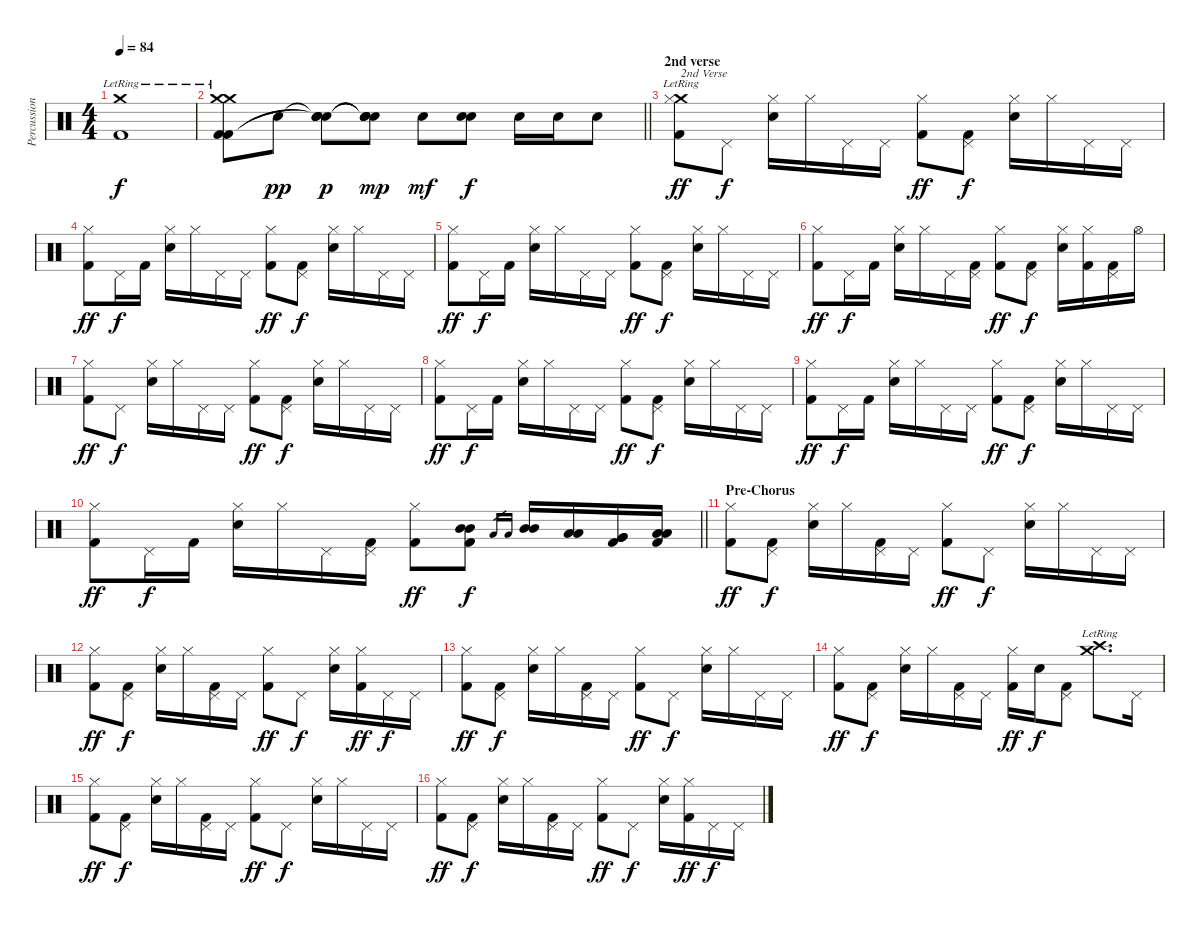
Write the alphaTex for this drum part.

\track ("Percussion" "Percussion") {instrument percussion}
\staff {score}
\articulation defaults
\ts (4 4)
\tempo 84
\clef neutral
\ks c
("Crash medium (hit)"{lr} "Kick (hit) 2").1{dy f} |
\barLineRight lightlight
("Crash medium (hit)"{lr} "Crash medium (hit)"{lr} "Kick (hit) 2" "Kick (hit) 2").8 "Electric Snare (hit)".8{dy pp} ("Snare (hit)"{t} "Electric Snare (hit)" "Snare (hit)"{t} "Snare (hit)"{t}).8{dy p} ("Snare (hit)"{t} "Electric Snare (hit)" "Snare (hit)"{t} "Snare (hit)"{t}).8{dy mp} "Electric Snare (hit)".8{dy mf} ("Electric Snare (hit)" "Electric Snare (hit)").8{bd 120 dy f} "Electric Snare (hit)".16 "Electric Snare (hit)".16 "Electric Snare (hit)".8 |
\section ("" "2nd verse")
("Crash medium (hit)"{lr} "Hi-Hat (closed)" "Kick (hit) 2").8{txt "2nd Verse" dy ff} "Pedal Hi-Hat (hit)".8{dy f} ("Hi-Hat (closed)" "Electric Snare (hit)").16 "Hi-Hat (closed)".16 "Pedal Hi-Hat (hit)".16 "Pedal Hi-Hat (hit)".16 ("Hi-Hat (closed)" "Kick (hit) 2").8{dy ff} ("Pedal Hi-Hat (hit)" "Kick (hit) 2").8{dy f} ("Hi-Hat (closed)" "Electric Snare (hit)").16 "Hi-Hat (closed)".16 "Pedal Hi-Hat (hit)".16 "Pedal Hi-Hat (hit)".16 |
("Hi-Hat (closed)" "Kick (hit) 2").8{dy ff} "Pedal Hi-Hat (hit)".16{dy f} "Kick (hit) 2".16 ("Hi-Hat (closed)" "Electric Snare (hit)").16 "Hi-Hat (closed)".16 "Pedal Hi-Hat (hit)".16 "Pedal Hi-Hat (hit)".16 ("Hi-Hat (closed)" "Kick (hit) 2").8{dy ff} ("Pedal Hi-Hat (hit)" "Kick (hit) 2").8{dy f} ("Hi-Hat (closed)" "Electric Snare (hit)").16 "Hi-Hat (closed)".16 "Pedal Hi-Hat (hit)".16 "Pedal Hi-Hat (hit)".16 |
("Hi-Hat (closed)" "Kick (hit) 2").8{dy ff} "Pedal Hi-Hat (hit)".16{dy f} "Kick (hit) 2".16 ("Hi-Hat (closed)" "Electric Snare (hit)").16 "Hi-Hat (closed)".16 "Pedal Hi-Hat (hit)".16 "Pedal Hi-Hat (hit)".16 ("Hi-Hat (closed)" "Kick (hit) 2").8{dy ff} ("Pedal Hi-Hat (hit)" "Kick (hit) 2").8{dy f} ("Hi-Hat (closed)" "Electric Snare (hit)").16 "Hi-Hat (closed)".16 "Pedal Hi-Hat (hit)".16 "Pedal Hi-Hat (hit)".16 |
("Hi-Hat (closed)" "Kick (hit) 2").8{dy ff} "Pedal Hi-Hat (hit)".16{dy f} "Kick (hit) 2".16 ("Hi-Hat (closed)" "Electric Snare (hit)").16 "Hi-Hat (closed)".16 "Pedal Hi-Hat (hit)".16 ("Pedal Hi-Hat (hit)" "Kick (hit) 2").16 ("Hi-Hat (closed)" "Kick (hit) 2").8{dy ff} ("Pedal Hi-Hat (hit)" "Kick (hit) 2").8{dy f} ("Hi-Hat (closed)" "Electric Snare (hit)").16 ("Hi-Hat (closed)" "Kick (hit) 2").16 ("Pedal Hi-Hat (hit)" "Kick (hit) 2").16 "Hi-Hat (open)".16 |
("Hi-Hat (closed)" "Kick (hit) 2").8{dy ff} "Pedal Hi-Hat (hit)".8{dy f} ("Hi-Hat (closed)" "Electric Snare (hit)").16 "Hi-Hat (closed)".16 "Pedal Hi-Hat (hit)".16 "Pedal Hi-Hat (hit)".16 ("Hi-Hat (closed)" "Kick (hit) 2").8{dy ff} ("Pedal Hi-Hat (hit)" "Kick (hit) 2").8{dy f} ("Hi-Hat (closed)" "Electric Snare (hit)").16 "Hi-Hat (closed)".16 "Pedal Hi-Hat (hit)".16 "Pedal Hi-Hat (hit)".16 |
("Hi-Hat (closed)" "Kick (hit) 2").8{dy ff} "Pedal Hi-Hat (hit)".16{dy f} "Kick (hit) 2".16 ("Hi-Hat (closed)" "Electric Snare (hit)").16 "Hi-Hat (closed)".16 "Pedal Hi-Hat (hit)".16 "Pedal Hi-Hat (hit)".16 ("Hi-Hat (closed)" "Kick (hit) 2").8{dy ff} ("Pedal Hi-Hat (hit)" "Kick (hit) 2").8{dy f} ("Hi-Hat (closed)" "Electric Snare (hit)").16 "Hi-Hat (closed)".16 "Pedal Hi-Hat (hit)".16 "Pedal Hi-Hat (hit)".16 |
("Hi-Hat (closed)" "Kick (hit) 2").8{dy ff} "Pedal Hi-Hat (hit)".16{dy f} "Kick (hit) 2".16 ("Hi-Hat (closed)" "Electric Snare (hit)").16 "Hi-Hat (closed)".16 "Pedal Hi-Hat (hit)".16 "Pedal Hi-Hat (hit)".16 ("Hi-Hat (closed)" "Kick (hit) 2").8{dy ff} ("Pedal Hi-Hat (hit)" "Kick (hit) 2").8{dy f} ("Hi-Hat (closed)" "Electric Snare (hit)").16 "Hi-Hat (closed)".16 "Pedal Hi-Hat (hit)".16 "Pedal Hi-Hat (hit)".16 |
\barLineRight lightlight
("Hi-Hat (closed)" "Kick (hit) 2").8{dy ff} "Pedal Hi-Hat (hit)".16{dy f} "Kick (hit) 2".16 ("Hi-Hat (closed)" "Electric Snare (hit)").16 "Hi-Hat (closed)".16 "Pedal Hi-Hat (hit)".16 ("Pedal Hi-Hat (hit)" "Kick (hit) 2").16 ("Hi-Hat (closed)" "Kick (hit) 2").8{dy ff} ("Mid Tom (hit)" "Mid Tom (hit)" "Kick (hit) 2").8{dy f} "Low Tom (hit)".16{gr} "Low Tom (hit)".16{gr} ("Mid Tom (hit)" "Mid Tom (hit)").16 ("Low Tom (hit)" "Low Tom (hit)").16 ("Very Low Tom (hit)" "Very Low Tom (hit)" "Kick (hit) 2").16 ("Low Floor Tom (hit)" "Low Floor Tom (hit)" "Kick (hit) 2").16 |
\section ("" "Pre-Chorus")
("Hi-Hat (closed)" "Kick (hit) 2").8{dy ff} ("Pedal Hi-Hat (hit)" "Kick (hit) 2").8{dy f} ("Hi-Hat (closed)" "Electric Snare (hit)").16 "Hi-Hat (closed)".16 ("Pedal Hi-Hat (hit)" "Kick (hit) 2").16 "Pedal Hi-Hat (hit)".16 ("Hi-Hat (closed)" "Kick (hit) 2").8{dy ff} "Pedal Hi-Hat (hit)".8{dy f} ("Hi-Hat (closed)" "Electric Snare (hit)").16 "Hi-Hat (closed)".16 "Pedal Hi-Hat (hit)".16 "Pedal Hi-Hat (hit)".16 |
("Hi-Hat (closed)" "Kick (hit) 2").8{dy ff} ("Pedal Hi-Hat (hit)" "Kick (hit) 2").8{dy f} ("Hi-Hat (closed)" "Electric Snare (hit)").16 "Hi-Hat (closed)".16 ("Pedal Hi-Hat (hit)" "Kick (hit) 2").16 "Pedal Hi-Hat (hit)".16 ("Hi-Hat (closed)" "Kick (hit) 2").8{dy ff} "Pedal Hi-Hat (hit)".8{dy f} ("Hi-Hat (closed)" "Electric Snare (hit)").16 ("Hi-Hat (closed)" "Kick (hit) 2").16{dy ff} "Pedal Hi-Hat (hit)".16{dy f} "Pedal Hi-Hat (hit)".16 |
("Hi-Hat (closed)" "Kick (hit) 2").8{dy ff} ("Pedal Hi-Hat (hit)" "Kick (hit) 2").8{dy f} ("Hi-Hat (closed)" "Electric Snare (hit)").16 "Hi-Hat (closed)".16 ("Pedal Hi-Hat (hit)" "Kick (hit) 2").16 "Pedal Hi-Hat (hit)".16 ("Hi-Hat (closed)" "Kick (hit) 2").8{dy ff} "Pedal Hi-Hat (hit)".8{dy f} ("Hi-Hat (closed)" "Electric Snare (hit)").16 "Hi-Hat (closed)".16 "Pedal Hi-Hat (hit)".16 "Pedal Hi-Hat (hit)".16 |
("Hi-Hat (closed)" "Kick (hit) 2").8{dy ff} ("Pedal Hi-Hat (hit)" "Kick (hit) 2").8{dy f} ("Hi-Hat (closed)" "Electric Snare (hit)").16 "Hi-Hat (closed)".16 ("Pedal Hi-Hat (hit)" "Kick (hit) 2").16 "Pedal Hi-Hat (hit)".16 ("Hi-Hat (closed)" "Kick (hit) 2").16{dy ff} "Electric Snare (hit)".16{dy f} ("Pedal Hi-Hat (hit)" "Kick (hit) 2").8 ("Crash medium (hit)"{lr} "Crash high (hit)"{lr}).8{d} "Pedal Hi-Hat (hit)".16 |
("Hi-Hat (closed)" "Kick (hit) 2").8{dy ff} ("Pedal Hi-Hat (hit)" "Kick (hit) 2").8{dy f} ("Hi-Hat (closed)" "Electric Snare (hit)").16 "Hi-Hat (closed)".16 ("Pedal Hi-Hat (hit)" "Kick (hit) 2").16 "Pedal Hi-Hat (hit)".16 ("Hi-Hat (closed)" "Kick (hit) 2").8{dy ff} "Pedal Hi-Hat (hit)".8{dy f} ("Hi-Hat (closed)" "Electric Snare (hit)").16 "Hi-Hat (closed)".16 "Pedal Hi-Hat (hit)".16 "Pedal Hi-Hat (hit)".16 |
("Hi-Hat (closed)" "Kick (hit) 2").8{dy ff} ("Pedal Hi-Hat (hit)" "Kick (hit) 2").8{dy f} ("Hi-Hat (closed)" "Electric Snare (hit)").16 "Hi-Hat (closed)".16 ("Pedal Hi-Hat (hit)" "Kick (hit) 2").16 "Pedal Hi-Hat (hit)".16 ("Hi-Hat (closed)" "Kick (hit) 2").8{dy ff} "Pedal Hi-Hat (hit)".8{dy f} ("Hi-Hat (closed)" "Electric Snare (hit)").16 ("Hi-Hat (closed)" "Kick (hit) 2").16{dy ff} "Pedal Hi-Hat (hit)".16{dy f} "Pedal Hi-Hat (hit)".16
